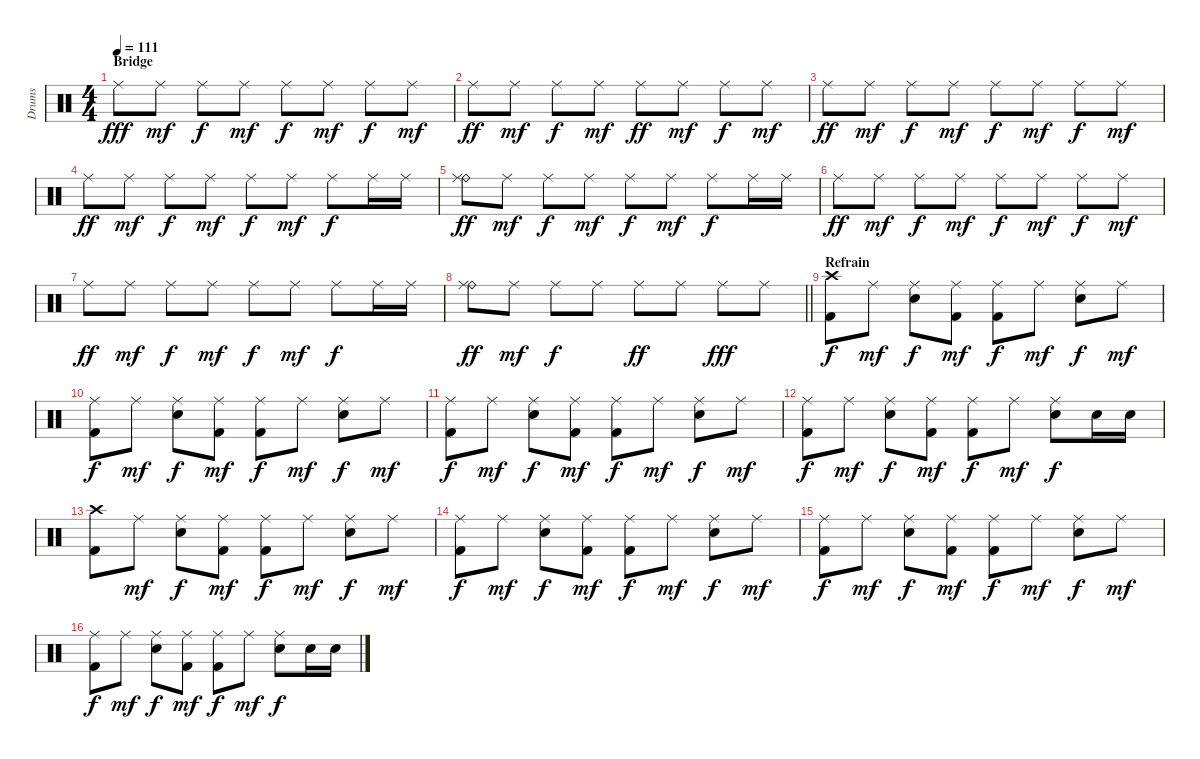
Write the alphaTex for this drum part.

\track ("Drums" "Drums") {instrument percussion}
\staff {score}
\articulation defaults
\ts (4 4)
\section ("" "Bridge")
\tempo 111
\clef neutral
\ks c "Ride (middle)".8{dy fff} "Ride (middle)".8{dy mf} "Ride (middle)".8{dy f} "Ride (middle)".8{dy mf} "Ride (middle)".8{dy f} "Ride (middle)".8{dy mf} "Ride (middle)".8{dy f} "Ride (middle)".8{dy mf}
|
"Ride (middle)".8{dy ff} "Ride (middle)".8{dy mf} "Ride (middle)".8{dy f} "Ride (middle)".8{dy mf} "Ride (middle)".8{dy ff} "Ride (middle)".8{dy mf} "Ride (middle)".8{dy f} "Ride (middle)".8{dy mf} |
"Ride (middle)".8{dy ff} "Ride (middle)".8{dy mf} "Ride (middle)".8{dy f} "Ride (middle)".8{dy mf} "Ride (middle)".8{dy f} "Ride (middle)".8{dy mf} "Ride (middle)".8{dy f} "Ride (middle)".8{dy mf} |
"Ride (middle)".8{dy ff} "Ride (middle)".8{dy mf} "Ride (middle)".8{dy f} "Ride (middle)".8{dy mf} "Ride (middle)".8{dy f} "Ride (middle)".8{dy mf} "Ride (middle)".8{dy f} "Ride (middle)".16 "Ride (middle)".16 |
("Ride (bell)" "Ride (middle)").8{dy ff} "Ride (middle)".8{dy mf} "Ride (middle)".8{dy f} "Ride (middle)".8{dy mf} "Ride (middle)".8{dy f} "Ride (middle)".8{dy mf} "Ride (middle)".8{dy f} "Ride (middle)".16 "Ride (middle)".16 |
"Ride (middle)".8{dy ff} "Ride (middle)".8{dy mf} "Ride (middle)".8{dy f} "Ride (middle)".8{dy mf} "Ride (middle)".8{dy f} "Ride (middle)".8{dy mf} "Ride (middle)".8{dy f} "Ride (middle)".8{dy mf} |
"Ride (middle)".8{dy ff} "Ride (middle)".8{dy mf} "Ride (middle)".8{dy f} "Ride (middle)".8{dy mf} "Ride (middle)".8{dy f} "Ride (middle)".8{dy mf} "Ride (middle)".8{dy f} "Ride (middle)".16 "Ride (middle)".16 |
\barLineRight lightlight
("Ride (bell)" "Ride (middle)").8{dy ff} "Ride (middle)".8{dy mf} "Ride (middle)".8{dy f} "Ride (middle)".8 "Ride (middle)".8{dy ff} "Ride (middle)".8 "Ride (middle)".8{dy fff} "Ride (middle)".8 |
\section ("" "Refrain")
("Crash high (hit)" "Kick (hit) 2").8{dy f} "Ride (middle)".8{dy mf} ("Ride (middle)" "Snare (hit) 2").8{dy f} ("Ride (middle)" "Kick (hit) 2").8{dy mf} ("Ride (middle)" "Kick (hit) 2").8{dy f} "Ride (middle)".8{dy mf} ("Ride (middle)" "Snare (hit) 2").8{dy f} "Ride (middle)".8{dy mf} |
("Ride (middle)" "Kick (hit) 2").8{dy f} "Ride (middle)".8{dy mf} ("Ride (middle)" "Snare (hit) 2").8{dy f} ("Ride (middle)" "Kick (hit) 2").8{dy mf} ("Ride (middle)" "Kick (hit) 2").8{dy f} "Ride (middle)".8{dy mf} ("Ride (middle)" "Snare (hit) 2").8{dy f} "Ride (middle)".8{dy mf} |
("Ride (middle)" "Kick (hit) 2").8{dy f} "Ride (middle)".8{dy mf} ("Ride (middle)" "Snare (hit) 2").8{dy f} ("Ride (middle)" "Kick (hit) 2").8{dy mf} ("Ride (middle)" "Kick (hit) 2").8{dy f} "Ride (middle)".8{dy mf} ("Ride (middle)" "Snare (hit) 2").8{dy f} "Ride (middle)".8{dy mf} |
("Ride (middle)" "Kick (hit) 2").8{dy f} "Ride (middle)".8{dy mf} ("Ride (middle)" "Snare (hit) 2").8{dy f} ("Ride (middle)" "Kick (hit) 2").8{dy mf} ("Ride (middle)" "Kick (hit) 2").8{dy f} "Ride (middle)".8{dy mf} ("Ride (middle)" "Snare (hit) 2").8{dy f} "Snare (hit) 2".16 "Snare (hit) 2".16 |
("Crash high (hit)" "Kick (hit) 2").8 "Ride (middle)".8{dy mf} ("Ride (middle)" "Snare (hit) 2").8{dy f} ("Ride (middle)" "Kick (hit) 2").8{dy mf} ("Ride (middle)" "Kick (hit) 2").8{dy f} "Ride (middle)".8{dy mf} ("Ride (middle)" "Snare (hit) 2").8{dy f} "Ride (middle)".8{dy mf} |
("Ride (middle)" "Kick (hit) 2").8{dy f} "Ride (middle)".8{dy mf} ("Ride (middle)" "Snare (hit) 2").8{dy f} ("Ride (middle)" "Kick (hit) 2").8{dy mf} ("Ride (middle)" "Kick (hit) 2").8{dy f} "Ride (middle)".8{dy mf} ("Ride (middle)" "Snare (hit) 2").8{dy f} "Ride (middle)".8{dy mf} |
("Ride (middle)" "Kick (hit) 2").8{dy f} "Ride (middle)".8{dy mf} ("Ride (middle)" "Snare (hit) 2").8{dy f} ("Ride (middle)" "Kick (hit) 2").8{dy mf} ("Ride (middle)" "Kick (hit) 2").8{dy f} "Ride (middle)".8{dy mf} ("Ride (middle)" "Snare (hit) 2").8{dy f} "Ride (middle)".8{dy mf} |
("Ride (middle)" "Kick (hit) 2").8{dy f} "Ride (middle)".8{dy mf} ("Ride (middle)" "Snare (hit) 2").8{dy f} ("Ride (middle)" "Kick (hit) 2").8{dy mf} ("Ride (middle)" "Kick (hit) 2").8{dy f} "Ride (middle)".8{dy mf} ("Ride (middle)" "Snare (hit) 2").8{dy f} "Snare (hit) 2".16 "Snare (hit) 2".16
